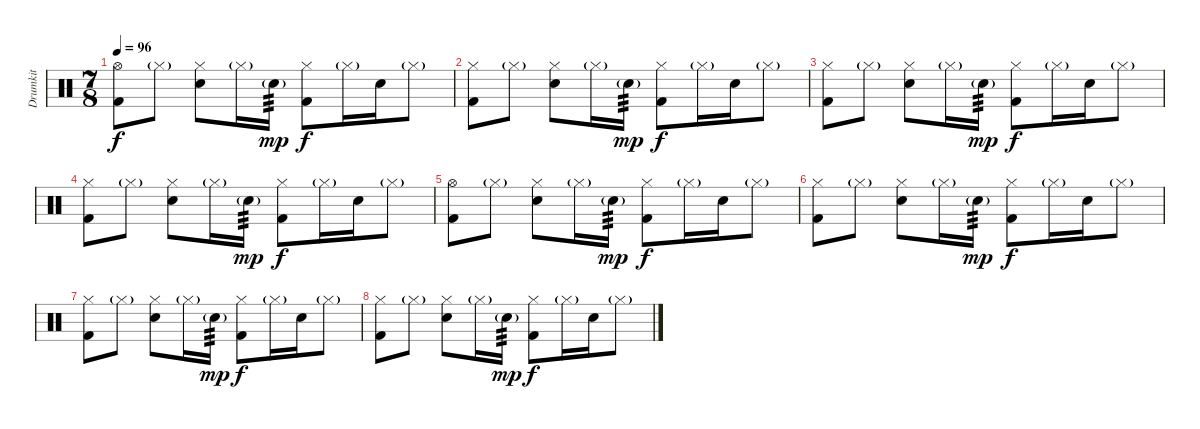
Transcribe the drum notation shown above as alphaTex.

\track ("Drumkit" "Drumkit") {instrument percussion}
\staff {score}
\articulation defaults
\ts (7 8)
\tempo 96
\clef neutral
\ks c
("Hi-Hat (open)" "Kick (hit) 2").8{dy f beam merge} "Hi-Hat (closed)"{g}.8{beam split} ("Hi-Hat (closed)" "Snare (hit) 2").8{beam merge} "Hi-Hat (closed)"{g}.16 "Snare (hit) 2"{g}.16{tp 3 dy mp} ("Hi-Hat (closed)" "Kick (hit) 2").8{dy f beam merge} "Hi-Hat (closed)"{g}.16{beam merge} "Snare (hit) 2".16{beam merge} "Hi-Hat (closed)"{g}.8 |
("Hi-Hat (closed)" "Kick (hit) 2").8{beam merge} "Hi-Hat (closed)"{g}.8{beam split} ("Hi-Hat (closed)" "Snare (hit) 2").8{beam merge} "Hi-Hat (closed)"{g}.16 "Snare (hit) 2"{g}.16{tp 3 dy mp} ("Hi-Hat (closed)" "Kick (hit) 2").8{dy f beam merge} "Hi-Hat (closed)"{g}.16{beam merge} "Snare (hit) 2".16{beam merge} "Hi-Hat (closed)"{g}.8 |
("Hi-Hat (closed)" "Kick (hit) 2").8{beam merge} "Hi-Hat (closed)"{g}.8{beam split} ("Hi-Hat (closed)" "Snare (hit) 2").8{beam merge} "Hi-Hat (closed)"{g}.16 "Snare (hit) 2"{g}.16{tp 3 dy mp} ("Hi-Hat (closed)" "Kick (hit) 2").8{dy f beam merge} "Hi-Hat (closed)"{g}.16{beam merge} "Snare (hit) 2".16{beam merge} "Hi-Hat (closed)"{g}.8 |
("Hi-Hat (closed)" "Kick (hit) 2").8{beam merge} "Hi-Hat (closed)"{g}.8{beam split} ("Hi-Hat (closed)" "Snare (hit) 2").8{beam merge} "Hi-Hat (closed)"{g}.16 "Snare (hit) 2"{g}.16{tp 3 dy mp} ("Hi-Hat (closed)" "Kick (hit) 2").8{dy f beam merge} "Hi-Hat (closed)"{g}.16{beam merge} "Snare (hit) 2".16{beam merge} "Hi-Hat (closed)"{g}.8 |
("Hi-Hat (open)" "Kick (hit) 2").8{beam merge} "Hi-Hat (closed)"{g}.8{beam split} ("Hi-Hat (closed)" "Snare (hit) 2").8{beam merge} "Hi-Hat (closed)"{g}.16 "Snare (hit) 2"{g}.16{tp 3 dy mp} ("Hi-Hat (closed)" "Kick (hit) 2").8{dy f beam merge} "Hi-Hat (closed)"{g}.16{beam merge} "Snare (hit) 2".16{beam merge} "Hi-Hat (closed)"{g}.8 |
("Hi-Hat (closed)" "Kick (hit) 2").8{beam merge} "Hi-Hat (closed)"{g}.8{beam split} ("Hi-Hat (closed)" "Snare (hit) 2").8{beam merge} "Hi-Hat (closed)"{g}.16 "Snare (hit) 2"{g}.16{tp 3 dy mp} ("Hi-Hat (closed)" "Kick (hit) 2").8{dy f beam merge} "Hi-Hat (closed)"{g}.16{beam merge} "Snare (hit) 2".16{beam merge} "Hi-Hat (closed)"{g}.8 |
("Hi-Hat (closed)" "Kick (hit) 2").8{beam merge} "Hi-Hat (closed)"{g}.8{beam split} ("Hi-Hat (closed)" "Snare (hit) 2").8{beam merge} "Hi-Hat (closed)"{g}.16 "Snare (hit) 2"{g}.16{tp 3 dy mp} ("Hi-Hat (closed)" "Kick (hit) 2").8{dy f beam merge} "Hi-Hat (closed)"{g}.16{beam merge} "Snare (hit) 2".16{beam merge} "Hi-Hat (closed)"{g}.8 |
("Hi-Hat (closed)" "Kick (hit) 2").8{beam merge} "Hi-Hat (closed)"{g}.8{beam split} ("Hi-Hat (closed)" "Snare (hit) 2").8{beam merge} "Hi-Hat (closed)"{g}.16 "Snare (hit) 2"{g}.16{tp 3 dy mp} ("Hi-Hat (closed)" "Kick (hit) 2").8{dy f beam merge} "Hi-Hat (closed)"{g}.16{beam merge} "Snare (hit) 2".16{beam merge} "Hi-Hat (closed)"{g}.8
